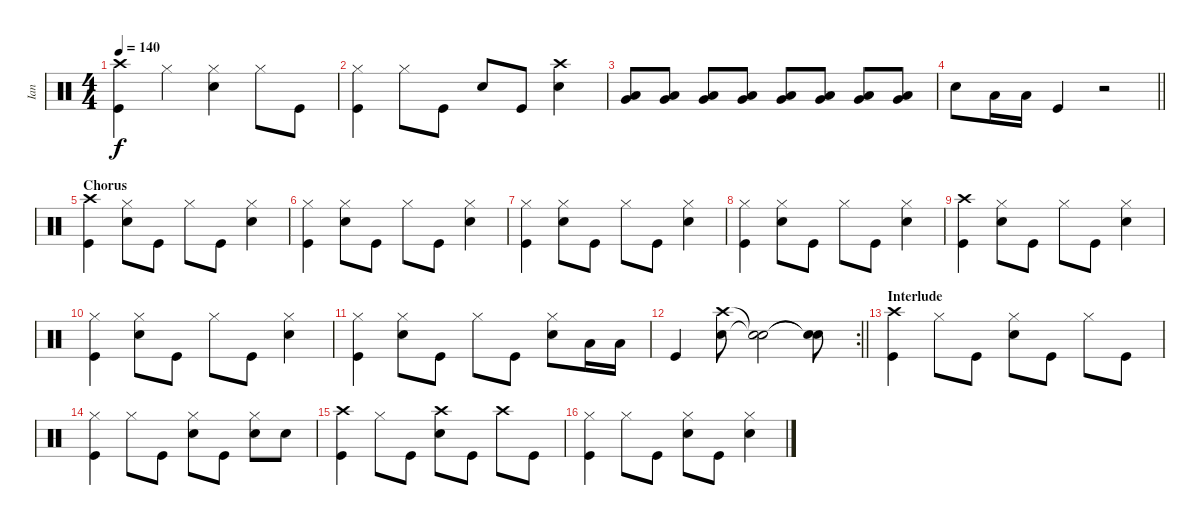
\track ("Ian" "Ian") {instrument percussion}
\staff {score}
\articulation defaults
\ts (4 4)
\tempo 140
\clef neutral
\ks c
("Crash high (hit)" "Kick (hit)").4{dy f} "Hi-Hat (closed)".4 ("Hi-Hat (closed)" "Snare (hit) 2").4 "Hi-Hat (closed)".8 "Kick (hit)".8 |
("Hi-Hat (closed)" "Kick (hit)").4 "Hi-Hat (closed)".8 "Kick (hit)".8 "Snare (hit) 2".8 "Kick (hit)".8 ("Crash high (hit)" "Snare (hit) 2").4 |
("Low Tom (hit)" "Very Low Tom (hit)").8 ("Low Tom (hit)" "Very Low Tom (hit)").8 ("Low Tom (hit)" "Very Low Tom (hit)").8 ("Low Tom (hit)" "Very Low Tom (hit)").8 ("Low Tom (hit)" "Very Low Tom (hit)").8 ("Low Tom (hit)" "Very Low Tom (hit)").8 ("Low Tom (hit)" "Very Low Tom (hit)").8 ("Low Tom (hit)" "Very Low Tom (hit)").8 |
\barLineRight lightlight "Snare (hit) 2".8 "Low Tom (hit)".16 "Low Tom (hit)".16 "Kick (hit)".4
r.2 |
\section ("" "Chorus")
("Crash high (hit)" "Kick (hit)").4 ("Hi-Hat (closed)" "Snare (hit) 2").8 "Kick (hit)".8 "Hi-Hat (closed)".8 "Kick (hit)".8 ("Hi-Hat (closed)" "Snare (hit) 2").4 |
("Hi-Hat (closed)" "Kick (hit)").4 ("Hi-Hat (closed)" "Snare (hit) 2").8 "Kick (hit)".8 "Hi-Hat (closed)".8 "Kick (hit)".8 ("Hi-Hat (closed)" "Snare (hit) 2").4 |
("Hi-Hat (closed)" "Kick (hit)").4 ("Hi-Hat (closed)" "Snare (hit) 2").8 "Kick (hit)".8 "Hi-Hat (closed)".8 "Kick (hit)".8 ("Hi-Hat (closed)" "Snare (hit) 2").4 |
("Hi-Hat (closed)" "Kick (hit)").4 ("Hi-Hat (closed)" "Snare (hit) 2").8 "Kick (hit)".8 "Hi-Hat (closed)".8 "Kick (hit)".8 ("Hi-Hat (closed)" "Snare (hit) 2").4 |
("Crash high (hit)" "Kick (hit)").4 ("Hi-Hat (closed)" "Snare (hit) 2").8 "Kick (hit)".8 "Hi-Hat (closed)".8 "Kick (hit)".8 ("Hi-Hat (closed)" "Snare (hit) 2").4 |
("Hi-Hat (closed)" "Kick (hit)").4 ("Hi-Hat (closed)" "Snare (hit) 2").8 "Kick (hit)".8 "Hi-Hat (closed)".8 "Kick (hit)".8 ("Hi-Hat (closed)" "Snare (hit) 2").4 |
("Hi-Hat (closed)" "Kick (hit)").4 ("Hi-Hat (closed)" "Snare (hit) 2").8 "Kick (hit)".8 "Hi-Hat (closed)".8 "Kick (hit)".8 ("Hi-Hat (closed)" "Snare (hit) 2").8 "Low Tom (hit)".16 "Low Tom (hit)".16 |
\rc 2
\barLineRight lightlight "Kick (hit)".4
("Crash high (hit)" "Snare (hit) 2").8 ("Snare (hit)"{t} "Snare (hit)"{t}).2 ("Snare (hit)"{t} "Snare (hit)"{t}).8 |
\section ("" "Interlude")
("Crash high (hit)" "Kick (hit)").4 "Hi-Hat (closed)".8 "Kick (hit)".8 ("Hi-Hat (closed)" "Snare (hit) 2").8 "Kick (hit)".8 "Hi-Hat (closed)".8 "Kick (hit)".8 |
("Hi-Hat (closed)" "Kick (hit)").4 "Hi-Hat (closed)".8 "Kick (hit)".8 ("Hi-Hat (closed)" "Snare (hit) 2").8 "Kick (hit)".8 ("Hi-Hat (closed)" "Snare (hit) 2").8 "Snare (hit) 2".8 |
("Crash high (hit)" "Kick (hit)").4 "Hi-Hat (closed)".8 "Kick (hit)".8 ("Crash high (hit)" "Snare (hit) 2").8 "Kick (hit)".8 "Crash high (hit)".8 "Kick (hit)".8 |
("Hi-Hat (closed)" "Kick (hit)").4 "Hi-Hat (closed)".8 "Kick (hit)".8 ("Hi-Hat (closed)" "Snare (hit) 2").8 "Kick (hit)".8 ("Hi-Hat (closed)" "Snare (hit) 2").4
